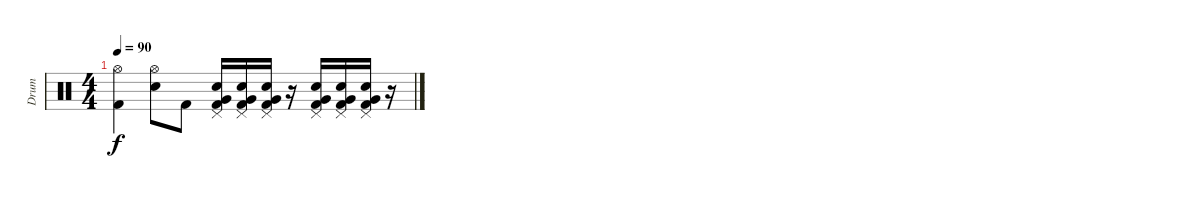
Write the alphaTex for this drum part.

\track ("Drum" "Drum") {instrument percussion}
\staff {score}
\articulation defaults
\ts (4 4)
\tempo 90
\clef neutral
\ks c
("Hi-Hat (open)" "Kick (hit) 2").4{dy f} ("Hi-Hat (open)" "Electric Snare (hit)").8 "Kick (hit) 2".8 ("Pedal Hi-Hat (hit)" "Kick (hit) 2" "Electric Snare (hit)" "Very Low Tom (hit)").16 ("Pedal Hi-Hat (hit)" "Kick (hit) 2" "Electric Snare (hit)" "Very Low Tom (hit)").16 ("Pedal Hi-Hat (hit)" "Kick (hit) 2" "Electric Snare (hit)" "Very Low Tom (hit)").16 r.16 ("Pedal Hi-Hat (hit)" "Kick (hit) 2" "Electric Snare (hit)" "Very Low Tom (hit)").16 ("Pedal Hi-Hat (hit)" "Kick (hit) 2" "Electric Snare (hit)" "Very Low Tom (hit)").16 ("Pedal Hi-Hat (hit)" "Kick (hit) 2" "Electric Snare (hit)" "Very Low Tom (hit)").16 r.16
